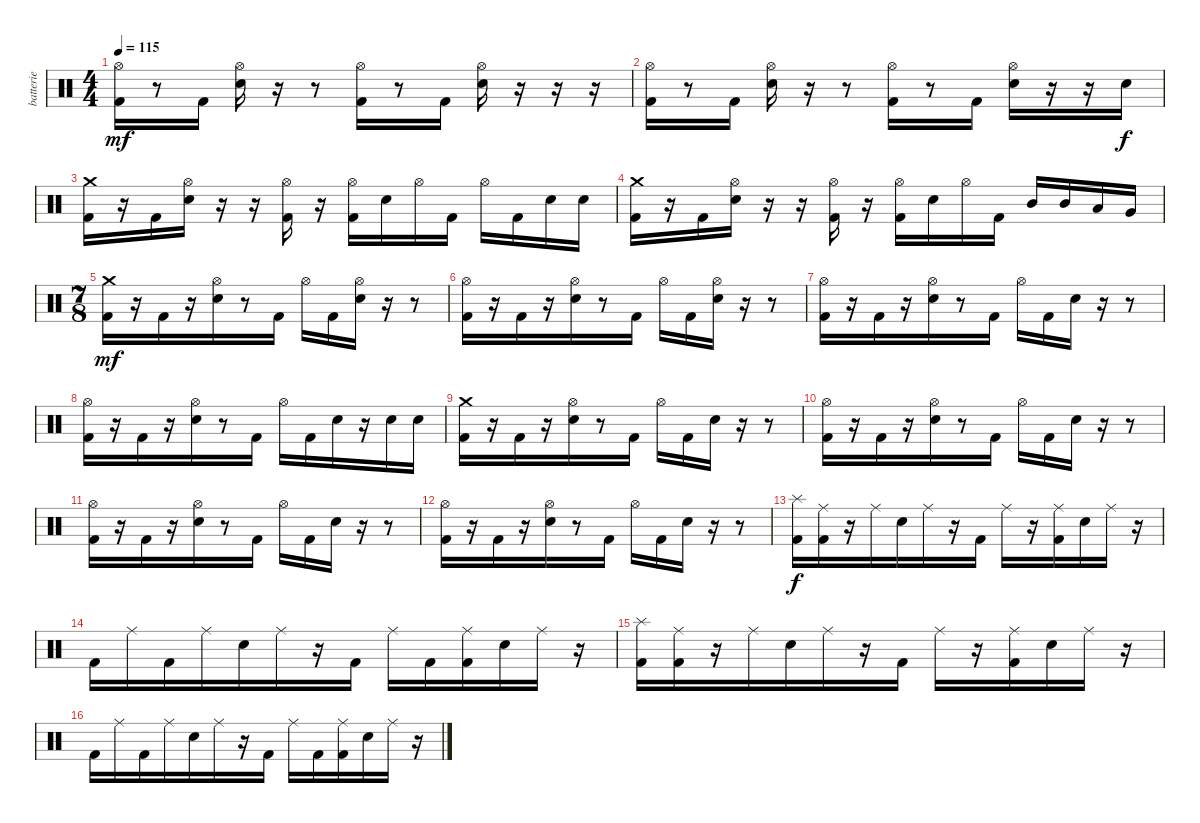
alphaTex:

\track ("batterie" "batterie") {instrument percussion}
\staff {score}
\articulation defaults
\ts (4 4)
\tempo 115
\clef neutral
\ks c
("Hi-Hat (open)" "Kick (hit) 2").16{dy mf} r.8 "Kick (hit) 2".16 ("Hi-Hat (open)" "Electric Snare (hit)").16 r.16 r.8 ("Hi-Hat (open)" "Kick (hit) 2").16 r.8 "Kick (hit) 2".16 ("Hi-Hat (open)" "Electric Snare (hit)").16 r.16 r.16 r.16 |
("Hi-Hat (open)" "Kick (hit) 2").16 r.8 "Kick (hit) 2".16 ("Hi-Hat (open)" "Electric Snare (hit)").16 r.16 r.8 ("Hi-Hat (open)" "Kick (hit) 2").16 r.8 "Kick (hit) 2".16 ("Hi-Hat (open)" "Electric Snare (hit)").16 r.16 r.16 "Electric Snare (hit)".16{dy f} |
("Crash medium (hit)" "Kick (hit) 2").16 r.16 "Kick (hit) 2".16 ("Hi-Hat (open)" "Electric Snare (hit)").16 r.16 r.16 ("Hi-Hat (open)" "Kick (hit) 2").16 r.16 ("Hi-Hat (open)" "Kick (hit) 2").16 "Electric Snare (hit)".16 "Hi-Hat (open)".16 "Kick (hit) 2".16 "Hi-Hat (open)".16 "Kick (hit) 2".16 "Electric Snare (hit)".16 "Electric Snare (hit)".16 |
("Crash medium (hit)" "Kick (hit) 2").16 r.16 "Kick (hit) 2".16 ("Hi-Hat (open)" "Electric Snare (hit)").16 r.16 r.16 ("Hi-Hat (open)" "Kick (hit) 2").16 r.16 ("Hi-Hat (open)" "Kick (hit) 2").16 "Electric Snare (hit)".16 "Hi-Hat (open)".16 "Kick (hit) 2".16 "Mid Tom (hit)".16 "Mid Tom (hit)".16 "Low Tom (hit)".16 "Very Low Tom (hit)".16 |
\ts (7 8)
("Crash medium (hit)" "Kick (hit) 2").16{dy mf} r.16 "Kick (hit) 2".16 r.16 ("Hi-Hat (open)" "Electric Snare (hit)").16 r.8 "Kick (hit) 2".16 "Hi-Hat (open)".16 "Kick (hit) 2".16 ("Hi-Hat (open)" "Electric Snare (hit)").16 r.16 r.8 |
("Hi-Hat (open)" "Kick (hit) 2").16 r.16 "Kick (hit) 2".16 r.16 ("Hi-Hat (open)" "Electric Snare (hit)").16 r.8 "Kick (hit) 2".16 "Hi-Hat (open)".16 "Kick (hit) 2".16 ("Hi-Hat (open)" "Electric Snare (hit)").16 r.16 r.8 |
("Hi-Hat (open)" "Kick (hit) 2").16 r.16 "Kick (hit) 2".16 r.16 ("Hi-Hat (open)" "Electric Snare (hit)").16 r.8 "Kick (hit) 2".16 "Hi-Hat (open)".16 "Kick (hit) 2".16 "Electric Snare (hit)".16 r.16 r.8 |
("Hi-Hat (open)" "Kick (hit) 2").16 r.16 "Kick (hit) 2".16 r.16 ("Hi-Hat (open)" "Electric Snare (hit)").16 r.8 "Kick (hit) 2".16 "Hi-Hat (open)".16 "Kick (hit) 2".16 "Electric Snare (hit)".16 r.16 "Electric Snare (hit)".16 "Electric Snare (hit)".16 |
("Crash medium (hit)" "Kick (hit) 2").16 r.16 "Kick (hit) 2".16 r.16 ("Hi-Hat (open)" "Electric Snare (hit)").16 r.8 "Kick (hit) 2".16 "Hi-Hat (open)".16 "Kick (hit) 2".16 "Electric Snare (hit)".16 r.16 r.8 |
("Hi-Hat (open)" "Kick (hit) 2").16 r.16 "Kick (hit) 2".16 r.16 ("Hi-Hat (open)" "Electric Snare (hit)").16 r.8 "Kick (hit) 2".16 "Hi-Hat (open)".16 "Kick (hit) 2".16 "Electric Snare (hit)".16 r.16 r.8 |
("Hi-Hat (open)" "Kick (hit) 2").16 r.16 "Kick (hit) 2".16 r.16 ("Hi-Hat (open)" "Electric Snare (hit)").16 r.8 "Kick (hit) 2".16 "Hi-Hat (open)".16 "Kick (hit) 2".16 "Electric Snare (hit)".16 r.16 r.8 |
("Hi-Hat (open)" "Kick (hit) 2").16 r.16 "Kick (hit) 2".16 r.16 ("Hi-Hat (open)" "Electric Snare (hit)").16 r.8 "Kick (hit) 2".16 "Hi-Hat (open)".16 "Kick (hit) 2".16 "Electric Snare (hit)".16 r.16 r.8 |
("Kick (hit) 2" "Splash (hit)").16{dy f} ("Kick (hit) 2" "Ride (middle)").16 r.16 "Ride (middle)".16 "Electric Snare (hit)".16 "Ride (middle)".16 r.16 "Kick (hit) 2".16 "Ride (middle)".16 r.16 ("Kick (hit) 2" "Ride (middle)").16 "Electric Snare (hit)".16 "Ride (middle)".16 r.16 |
"Kick (hit) 2".16 "Ride (middle)".16 "Kick (hit) 2".16 "Ride (middle)".16 "Electric Snare (hit)".16 "Ride (middle)".16 r.16 "Kick (hit) 2".16 "Ride (middle)".16 "Kick (hit) 2".16 ("Kick (hit) 2" "Ride (middle)").16 "Electric Snare (hit)".16 "Ride (middle)".16 r.16 |
("Kick (hit) 2" "Splash (hit)").16 ("Kick (hit) 2" "Ride (middle)").16 r.16 "Ride (middle)".16 "Electric Snare (hit)".16 "Ride (middle)".16 r.16 "Kick (hit) 2".16 "Ride (middle)".16 r.16 ("Kick (hit) 2" "Ride (middle)").16 "Electric Snare (hit)".16 "Ride (middle)".16 r.16 |
"Kick (hit) 2".16 "Ride (middle)".16 "Kick (hit) 2".16 "Ride (middle)".16 "Electric Snare (hit)".16 "Ride (middle)".16 r.16 "Kick (hit) 2".16 "Ride (middle)".16 "Kick (hit) 2".16 ("Kick (hit) 2" "Ride (middle)").16 "Electric Snare (hit)".16 "Ride (middle)".16 r.16
